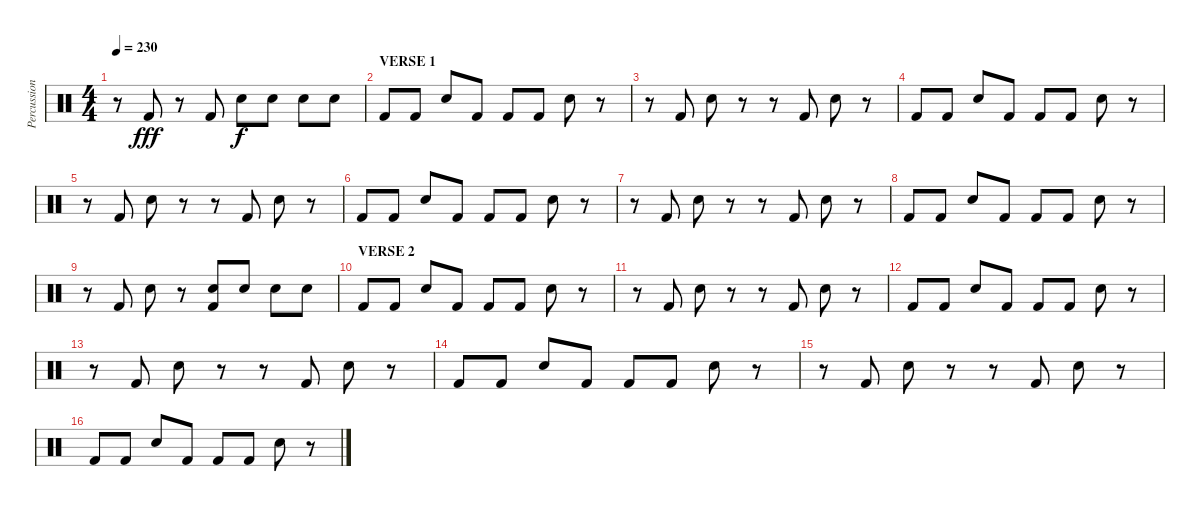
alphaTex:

\track ("Percussions" "Percussion") {instrument percussion}
\staff {score}
\articulation defaults
\ts (4 4)
\tempo 230
\clef neutral
\ks c
r.8{dy fff} "Kick (hit) 2".8 r.8 "Kick (hit) 2".8 "Snare (hit) 2".8{dy f} "Snare (hit) 2".8 "Snare (hit) 2".8 "Snare (hit) 2".8 |
\section ("" "VERSE 1")
"Kick (hit) 2".8 "Kick (hit) 2".8 "Snare (hit) 2".8 "Kick (hit) 2".8 "Kick (hit) 2".8 "Kick (hit) 2".8 "Snare (hit) 2".8 r.8 |
r.8 "Kick (hit) 2".8 "Snare (hit) 2".8 r.8 r.8 "Kick (hit) 2".8 "Snare (hit) 2".8 r.8 |
"Kick (hit) 2".8 "Kick (hit) 2".8 "Snare (hit) 2".8 "Kick (hit) 2".8 "Kick (hit) 2".8 "Kick (hit) 2".8 "Snare (hit) 2".8 r.8 |
r.8 "Kick (hit) 2".8 "Snare (hit) 2".8 r.8 r.8 "Kick (hit) 2".8 "Snare (hit) 2".8 r.8 |
"Kick (hit) 2".8 "Kick (hit) 2".8 "Snare (hit) 2".8 "Kick (hit) 2".8 "Kick (hit) 2".8 "Kick (hit) 2".8 "Snare (hit) 2".8 r.8 |
r.8 "Kick (hit) 2".8 "Snare (hit) 2".8 r.8 r.8 "Kick (hit) 2".8 "Snare (hit) 2".8 r.8 |
"Kick (hit) 2".8 "Kick (hit) 2".8 "Snare (hit) 2".8 "Kick (hit) 2".8 "Kick (hit) 2".8 "Kick (hit) 2".8 "Snare (hit) 2".8 r.8 |
r.8 "Kick (hit) 2".8 "Snare (hit) 2".8 r.8 ("Snare (hit) 2" "Kick (hit) 2").8 "Snare (hit) 2".8 "Snare (hit) 2".8 "Snare (hit) 2".8 |
\section ("" "VERSE 2")
"Kick (hit) 2".8 "Kick (hit) 2".8 "Snare (hit) 2".8 "Kick (hit) 2".8 "Kick (hit) 2".8 "Kick (hit) 2".8 "Snare (hit) 2".8 r.8 |
r.8 "Kick (hit) 2".8 "Snare (hit) 2".8 r.8 r.8 "Kick (hit) 2".8 "Snare (hit) 2".8 r.8 |
"Kick (hit) 2".8 "Kick (hit) 2".8 "Snare (hit) 2".8 "Kick (hit) 2".8 "Kick (hit) 2".8 "Kick (hit) 2".8 "Snare (hit) 2".8 r.8 |
r.8 "Kick (hit) 2".8 "Snare (hit) 2".8 r.8 r.8 "Kick (hit) 2".8 "Snare (hit) 2".8 r.8 |
"Kick (hit) 2".8 "Kick (hit) 2".8 "Snare (hit) 2".8 "Kick (hit) 2".8 "Kick (hit) 2".8 "Kick (hit) 2".8 "Snare (hit) 2".8 r.8 |
r.8 "Kick (hit) 2".8 "Snare (hit) 2".8 r.8 r.8 "Kick (hit) 2".8 "Snare (hit) 2".8 r.8 |
"Kick (hit) 2".8 "Kick (hit) 2".8 "Snare (hit) 2".8 "Kick (hit) 2".8 "Kick (hit) 2".8 "Kick (hit) 2".8 "Snare (hit) 2".8 r.8
